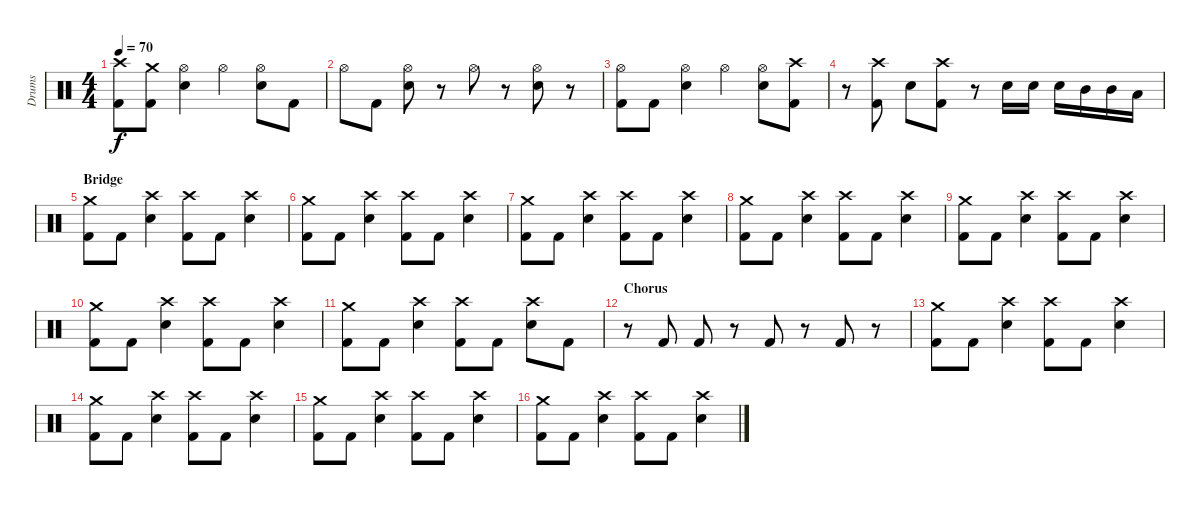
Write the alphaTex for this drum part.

\track ("Drums" "Drums") {instrument percussion}
\staff {score}
\articulation defaults
\ts (4 4)
\tempo 70
\clef neutral
\ks c
("Crash high (hit)" "Kick (hit) 2").8{dy f} ("Crash medium (hit)" "Kick (hit) 2").8 ("Hi-Hat (open)" "Snare (hit) 2").4 "Hi-Hat (open)".4 ("Hi-Hat (open)" "Snare (hit) 2").8 "Kick (hit) 2".8 |
"Hi-Hat (open)".8 "Kick (hit) 2".8 ("Hi-Hat (open)" "Snare (hit) 2").8 r.8 "Hi-Hat (open)".8 r.8 ("Hi-Hat (open)" "Snare (hit) 2").8 r.8 |
("Hi-Hat (open)" "Kick (hit) 2").8 "Kick (hit) 2".8 ("Hi-Hat (open)" "Snare (hit) 2").4 "Hi-Hat (open)".4 ("Hi-Hat (open)" "Snare (hit) 2").8 ("Crash high (hit)" "Kick (hit) 2").8 |
r.8 ("Crash high (hit)" "Kick (hit) 2").8 "Snare (hit) 2".8 ("Crash high (hit)" "Kick (hit) 2").8 r.8 "Snare (hit) 2".16 "Snare (hit) 2".16 "Snare (hit) 2".16 "Mid Tom (hit)".16 "Mid Tom (hit)".16 "Low Tom (hit)".16 |
\section ("" "Bridge")
("Crash medium (hit)" "Kick (hit) 2").8 "Kick (hit) 2".8 ("Crash high (hit)" "Snare (hit) 2").4 ("Crash high (hit)" "Kick (hit) 2").8 "Kick (hit) 2".8 ("Crash high (hit)" "Snare (hit) 2").4 |
("Crash medium (hit)" "Kick (hit) 2").8 "Kick (hit) 2".8 ("Crash high (hit)" "Snare (hit) 2").4 ("Crash high (hit)" "Kick (hit) 2").8 "Kick (hit) 2".8 ("Crash high (hit)" "Snare (hit) 2").4 |
("Crash medium (hit)" "Kick (hit) 2").8 "Kick (hit) 2".8 ("Crash high (hit)" "Snare (hit) 2").4 ("Crash high (hit)" "Kick (hit) 2").8 "Kick (hit) 2".8 ("Crash high (hit)" "Snare (hit) 2").4 |
("Crash medium (hit)" "Kick (hit) 2").8 "Kick (hit) 2".8 ("Crash high (hit)" "Snare (hit) 2").4 ("Crash high (hit)" "Kick (hit) 2").8 "Kick (hit) 2".8 ("Crash high (hit)" "Snare (hit) 2").4 |
("Crash medium (hit)" "Kick (hit) 2").8 "Kick (hit) 2".8 ("Crash high (hit)" "Snare (hit) 2").4 ("Crash high (hit)" "Kick (hit) 2").8 "Kick (hit) 2".8 ("Crash high (hit)" "Snare (hit) 2").4 |
("Crash medium (hit)" "Kick (hit) 2").8 "Kick (hit) 2".8 ("Crash high (hit)" "Snare (hit) 2").4 ("Crash high (hit)" "Kick (hit) 2").8 "Kick (hit) 2".8 ("Crash high (hit)" "Snare (hit) 2").4 |
("Crash medium (hit)" "Kick (hit) 2").8 "Kick (hit) 2".8 ("Crash high (hit)" "Snare (hit) 2").4 ("Crash high (hit)" "Kick (hit) 2").8 "Kick (hit) 2".8 ("Crash high (hit)" "Snare (hit) 2").8 "Kick (hit) 2".8 |
\section ("" "Chorus")
r.8 "Kick (hit) 2".8 "Kick (hit) 2".8 r.8 "Kick (hit) 2".8 r.8 "Kick (hit) 2".8 r.8 |
("Crash medium (hit)" "Kick (hit) 2").8 "Kick (hit) 2".8 ("Crash high (hit)" "Snare (hit) 2").4 ("Crash high (hit)" "Kick (hit) 2").8 "Kick (hit) 2".8 ("Crash high (hit)" "Snare (hit) 2").4 |
("Crash medium (hit)" "Kick (hit) 2").8 "Kick (hit) 2".8 ("Crash high (hit)" "Snare (hit) 2").4 ("Crash high (hit)" "Kick (hit) 2").8 "Kick (hit) 2".8 ("Crash high (hit)" "Snare (hit) 2").4 |
("Crash medium (hit)" "Kick (hit) 2").8 "Kick (hit) 2".8 ("Crash high (hit)" "Snare (hit) 2").4 ("Crash high (hit)" "Kick (hit) 2").8 "Kick (hit) 2".8 ("Crash high (hit)" "Snare (hit) 2").4 |
("Crash medium (hit)" "Kick (hit) 2").8 "Kick (hit) 2".8 ("Crash high (hit)" "Snare (hit) 2").4 ("Crash high (hit)" "Kick (hit) 2").8 "Kick (hit) 2".8 ("Crash high (hit)" "Snare (hit) 2").4
